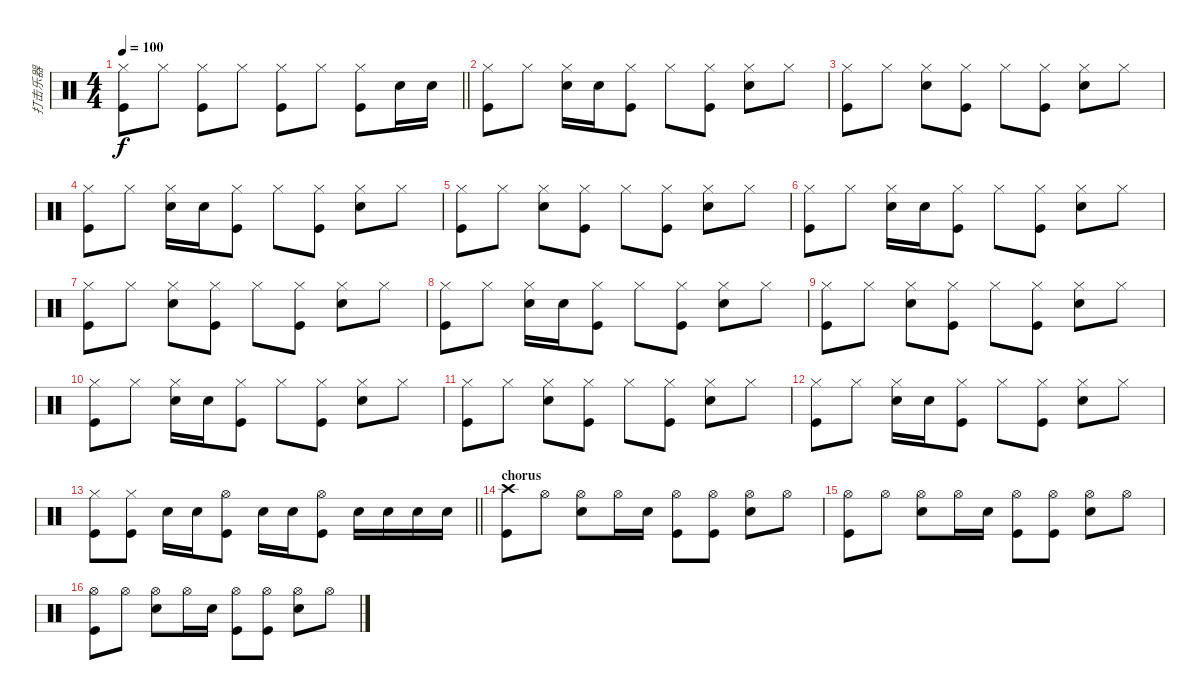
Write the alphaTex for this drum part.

\track ("打击乐器" "打击乐器") {instrument percussion}
\staff {score}
\articulation defaults
\ts (4 4)
\tempo 100
\clef neutral
\barLineRight lightlight
\ks c
("Hi-Hat (closed)" "Kick (hit)").8{dy f} "Hi-Hat (closed)".8 ("Hi-Hat (closed)" "Kick (hit)").8 "Hi-Hat (closed)".8 ("Hi-Hat (closed)" "Kick (hit)").8 "Hi-Hat (closed)".8 ("Hi-Hat (closed)" "Kick (hit)").8 "Electric Snare (hit)".16 "Electric Snare (hit)".16 |
\section ("" "")
("Hi-Hat (closed)" "Kick (hit)").8 "Hi-Hat (closed)".8 ("Hi-Hat (closed)" "Electric Snare (hit)").16 "Electric Snare (hit)".16 ("Hi-Hat (closed)" "Kick (hit)").8 "Hi-Hat (closed)".8 ("Hi-Hat (closed)" "Kick (hit)").8 ("Hi-Hat (closed)" "Electric Snare (hit)").8 "Hi-Hat (closed)".8 |
("Hi-Hat (closed)" "Kick (hit)").8 "Hi-Hat (closed)".8 ("Hi-Hat (closed)" "Electric Snare (hit)").8 ("Hi-Hat (closed)" "Kick (hit)").8 "Hi-Hat (closed)".8 ("Hi-Hat (closed)" "Kick (hit)").8 ("Hi-Hat (closed)" "Electric Snare (hit)").8 "Hi-Hat (closed)".8 |
("Hi-Hat (closed)" "Kick (hit)").8 "Hi-Hat (closed)".8 ("Hi-Hat (closed)" "Electric Snare (hit)").16 "Electric Snare (hit)".16 ("Hi-Hat (closed)" "Kick (hit)").8 "Hi-Hat (closed)".8 ("Hi-Hat (closed)" "Kick (hit)").8 ("Hi-Hat (closed)" "Electric Snare (hit)").8 "Hi-Hat (closed)".8 |
("Hi-Hat (closed)" "Kick (hit)").8 "Hi-Hat (closed)".8 ("Hi-Hat (closed)" "Electric Snare (hit)").8 ("Hi-Hat (closed)" "Kick (hit)").8 "Hi-Hat (closed)".8 ("Hi-Hat (closed)" "Kick (hit)").8 ("Hi-Hat (closed)" "Electric Snare (hit)").8 "Hi-Hat (closed)".8 |
("Hi-Hat (closed)" "Kick (hit)").8 "Hi-Hat (closed)".8 ("Hi-Hat (closed)" "Electric Snare (hit)").16 "Electric Snare (hit)".16 ("Hi-Hat (closed)" "Kick (hit)").8 "Hi-Hat (closed)".8 ("Hi-Hat (closed)" "Kick (hit)").8 ("Hi-Hat (closed)" "Electric Snare (hit)").8 "Hi-Hat (closed)".8 |
("Hi-Hat (closed)" "Kick (hit)").8 "Hi-Hat (closed)".8 ("Hi-Hat (closed)" "Electric Snare (hit)").8 ("Hi-Hat (closed)" "Kick (hit)").8 "Hi-Hat (closed)".8 ("Hi-Hat (closed)" "Kick (hit)").8 ("Hi-Hat (closed)" "Electric Snare (hit)").8 "Hi-Hat (closed)".8 |
("Hi-Hat (closed)" "Kick (hit)").8 "Hi-Hat (closed)".8 ("Hi-Hat (closed)" "Electric Snare (hit)").16 "Electric Snare (hit)".16 ("Hi-Hat (closed)" "Kick (hit)").8 "Hi-Hat (closed)".8 ("Hi-Hat (closed)" "Kick (hit)").8 ("Hi-Hat (closed)" "Electric Snare (hit)").8 "Hi-Hat (closed)".8 |
("Hi-Hat (closed)" "Kick (hit)").8 "Hi-Hat (closed)".8 ("Hi-Hat (closed)" "Electric Snare (hit)").8 ("Hi-Hat (closed)" "Kick (hit)").8 "Hi-Hat (closed)".8 ("Hi-Hat (closed)" "Kick (hit)").8 ("Hi-Hat (closed)" "Electric Snare (hit)").8 "Hi-Hat (closed)".8 |
("Hi-Hat (closed)" "Kick (hit)").8 "Hi-Hat (closed)".8 ("Hi-Hat (closed)" "Electric Snare (hit)").16 "Electric Snare (hit)".16 ("Hi-Hat (closed)" "Kick (hit)").8 "Hi-Hat (closed)".8 ("Hi-Hat (closed)" "Kick (hit)").8 ("Hi-Hat (closed)" "Electric Snare (hit)").8 "Hi-Hat (closed)".8 |
("Hi-Hat (closed)" "Kick (hit)").8 "Hi-Hat (closed)".8 ("Hi-Hat (closed)" "Electric Snare (hit)").8 ("Hi-Hat (closed)" "Kick (hit)").8 "Hi-Hat (closed)".8 ("Hi-Hat (closed)" "Kick (hit)").8 ("Hi-Hat (closed)" "Electric Snare (hit)").8 "Hi-Hat (closed)".8 |
("Hi-Hat (closed)" "Kick (hit)").8 "Hi-Hat (closed)".8 ("Hi-Hat (closed)" "Electric Snare (hit)").16 "Electric Snare (hit)".16 ("Hi-Hat (closed)" "Kick (hit)").8 "Hi-Hat (closed)".8 ("Hi-Hat (closed)" "Kick (hit)").8 ("Hi-Hat (closed)" "Electric Snare (hit)").8 "Hi-Hat (closed)".8 |
\barLineRight lightlight
("Hi-Hat (closed)" "Kick (hit)").8 ("Kick (hit)" "Hi-Hat (closed)").8 "Electric Snare (hit)".16 "Electric Snare (hit)".16 ("Hi-Hat (open)" "Kick (hit)").8 "Electric Snare (hit)".16 "Electric Snare (hit)".16 ("Hi-Hat (open)" "Kick (hit)").8 "Electric Snare (hit)".16 "Electric Snare (hit)".16 "Electric Snare (hit)".16 "Electric Snare (hit)".16 |
\section ("" "chorus")
("Crash high (hit)" "Kick (hit)").8 "Hi-Hat (open)".8 ("Hi-Hat (open)" "Electric Snare (hit)").8 "Hi-Hat (open)".16 "Electric Snare (hit)".16 ("Hi-Hat (open)" "Kick (hit)").8 ("Hi-Hat (open)" "Kick (hit)").8 ("Hi-Hat (open)" "Electric Snare (hit)").8 "Hi-Hat (open)".8 |
("Hi-Hat (open)" "Kick (hit)").8 "Hi-Hat (open)".8 ("Hi-Hat (open)" "Electric Snare (hit)").8 "Hi-Hat (open)".16 "Electric Snare (hit)".16 ("Hi-Hat (open)" "Kick (hit)").8 ("Hi-Hat (open)" "Kick (hit)").8 ("Hi-Hat (open)" "Electric Snare (hit)").8 "Hi-Hat (open)".8 |
("Hi-Hat (open)" "Kick (hit)").8 "Hi-Hat (open)".8 ("Hi-Hat (open)" "Electric Snare (hit)").8 "Hi-Hat (open)".16 "Electric Snare (hit)".16 ("Hi-Hat (open)" "Kick (hit)").8 ("Hi-Hat (open)" "Kick (hit)").8 ("Hi-Hat (open)" "Electric Snare (hit)").8 "Hi-Hat (open)".8
